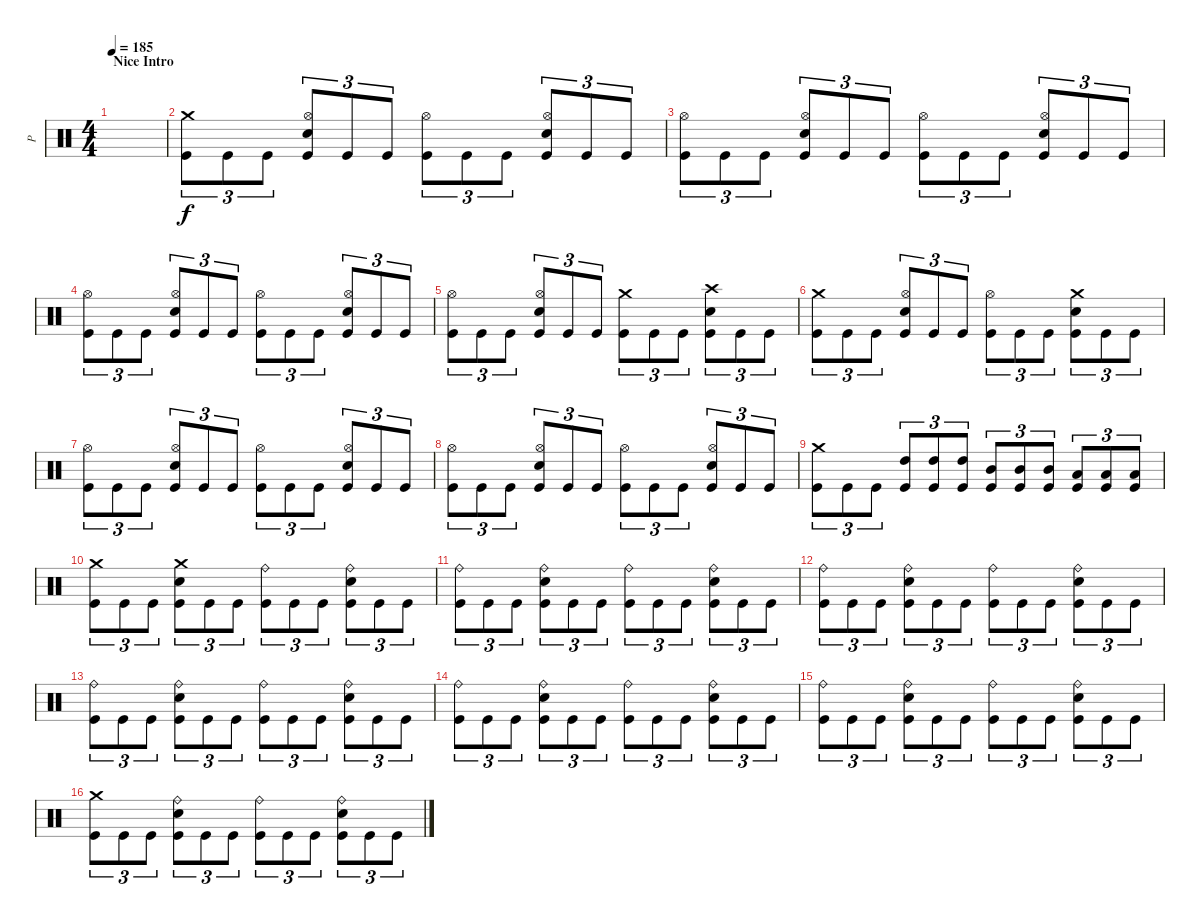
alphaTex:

\track ("P" "P") {instrument percussion}
\staff {score}
\articulation defaults
\ts (4 4)
\section ("" "Nice Intro")
\tempo 185
\clef neutral
\ks c
|
("Crash medium (hit)" "Kick (hit)").8{tu (3 2)} "Kick (hit)".8{tu (3 2)} "Kick (hit)".8{tu (3 2)} ("Hi-Hat (open)" "Electric Snare (hit)" "Kick (hit)").8{tu (3 2)} "Kick (hit)".8{tu (3 2)} "Kick (hit)".8{tu (3 2)} ("Hi-Hat (open)" "Kick (hit)").8{tu (3 2)} "Kick (hit)".8{tu (3 2)} "Kick (hit)".8{tu (3 2)} ("Hi-Hat (open)" "Electric Snare (hit)" "Kick (hit)").8{tu (3 2)} "Kick (hit)".8{tu (3 2)} "Kick (hit)".8{tu (3 2)} |
("Hi-Hat (open)" "Kick (hit)").8{tu (3 2)} "Kick (hit)".8{tu (3 2)} "Kick (hit)".8{tu (3 2)} ("Hi-Hat (open)" "Electric Snare (hit)" "Kick (hit)").8{tu (3 2)} "Kick (hit)".8{tu (3 2)} "Kick (hit)".8{tu (3 2)} ("Hi-Hat (open)" "Kick (hit)").8{tu (3 2)} "Kick (hit)".8{tu (3 2)} "Kick (hit)".8{tu (3 2)} ("Hi-Hat (open)" "Electric Snare (hit)" "Kick (hit)").8{tu (3 2)} "Kick (hit)".8{tu (3 2)} "Kick (hit)".8{tu (3 2)} |
("Hi-Hat (open)" "Kick (hit)").8{tu (3 2)} "Kick (hit)".8{tu (3 2)} "Kick (hit)".8{tu (3 2)} ("Hi-Hat (open)" "Electric Snare (hit)" "Kick (hit)").8{tu (3 2)} "Kick (hit)".8{tu (3 2)} "Kick (hit)".8{tu (3 2)} ("Hi-Hat (open)" "Kick (hit)").8{tu (3 2)} "Kick (hit)".8{tu (3 2)} "Kick (hit)".8{tu (3 2)} ("Hi-Hat (open)" "Electric Snare (hit)" "Kick (hit)").8{tu (3 2)} "Kick (hit)".8{tu (3 2)} "Kick (hit)".8{tu (3 2)} |
("Hi-Hat (open)" "Kick (hit)").8{tu (3 2)} "Kick (hit)".8{tu (3 2)} "Kick (hit)".8{tu (3 2)} ("Hi-Hat (open)" "Electric Snare (hit)" "Kick (hit)").8{tu (3 2)} "Kick (hit)".8{tu (3 2)} "Kick (hit)".8{tu (3 2)} ("Crash medium (hit)" "Kick (hit)").8{tu (3 2)} "Kick (hit)".8{tu (3 2)} "Kick (hit)".8{tu (3 2)} ("Crash high (hit)" "Electric Snare (hit)" "Kick (hit)").8{tu (3 2)} "Kick (hit)".8{tu (3 2)} "Kick (hit)".8{tu (3 2)} |
("Crash medium (hit)" "Kick (hit)").8{tu (3 2)} "Kick (hit)".8{tu (3 2)} "Kick (hit)".8{tu (3 2)} ("Hi-Hat (open)" "Electric Snare (hit)" "Kick (hit)").8{tu (3 2)} "Kick (hit)".8{tu (3 2)} "Kick (hit)".8{tu (3 2)} ("Hi-Hat (open)" "Kick (hit)").8{tu (3 2)} "Kick (hit)".8{tu (3 2)} "Kick (hit)".8{tu (3 2)} ("Crash medium (hit)" "Electric Snare (hit)" "Kick (hit)").8{tu (3 2)} "Kick (hit)".8{tu (3 2)} "Kick (hit)".8{tu (3 2)} |
("Hi-Hat (open)" "Kick (hit)").8{tu (3 2)} "Kick (hit)".8{tu (3 2)} "Kick (hit)".8{tu (3 2)} ("Hi-Hat (open)" "Electric Snare (hit)" "Kick (hit)").8{tu (3 2)} "Kick (hit)".8{tu (3 2)} "Kick (hit)".8{tu (3 2)} ("Hi-Hat (open)" "Kick (hit)").8{tu (3 2)} "Kick (hit)".8{tu (3 2)} "Kick (hit)".8{tu (3 2)} ("Hi-Hat (open)" "Electric Snare (hit)" "Kick (hit)").8{tu (3 2)} "Kick (hit)".8{tu (3 2)} "Kick (hit)".8{tu (3 2)} |
("Hi-Hat (open)" "Kick (hit)").8{tu (3 2)} "Kick (hit)".8{tu (3 2)} "Kick (hit)".8{tu (3 2)} ("Hi-Hat (open)" "Electric Snare (hit)" "Kick (hit)").8{tu (3 2)} "Kick (hit)".8{tu (3 2)} "Kick (hit)".8{tu (3 2)} ("Hi-Hat (open)" "Kick (hit)").8{tu (3 2)} "Kick (hit)".8{tu (3 2)} "Kick (hit)".8{tu (3 2)} ("Hi-Hat (open)" "Electric Snare (hit)" "Kick (hit)").8{tu (3 2)} "Kick (hit)".8{tu (3 2)} "Kick (hit)".8{tu (3 2)} |
("Crash medium (hit)" "Kick (hit)").8{tu (3 2)} "Kick (hit)".8{tu (3 2)} "Kick (hit)".8{tu (3 2)} ("High Tom (hit)" "Kick (hit)").8{tu (3 2)} ("High Tom (hit)" "Kick (hit)").8{tu (3 2)} ("High Tom (hit)" "Kick (hit)").8{tu (3 2)} ("Mid Tom (hit)" "Kick (hit)").8{tu (3 2)} ("Mid Tom (hit)" "Kick (hit)").8{tu (3 2)} ("Mid Tom (hit)" "Kick (hit)").8{tu (3 2)} ("Low Tom (hit)" "Kick (hit)").8{tu (3 2)} ("Low Tom (hit)" "Kick (hit)").8{tu (3 2)} ("Low Tom (hit)" "Kick (hit)").8{tu (3 2)} |
("Crash medium (hit)" "Kick (hit)").8{tu (3 2)} "Kick (hit)".8{tu (3 2)} "Kick (hit)".8{tu (3 2)} ("Crash medium (hit)" "Electric Snare (hit)" "Kick (hit)").8{tu (3 2)} "Kick (hit)".8{tu (3 2)} "Kick (hit)".8{tu (3 2)} ("Ride (bell)" "Kick (hit)").8{tu (3 2)} "Kick (hit)".8{tu (3 2)} "Kick (hit)".8{tu (3 2)} ("Ride (bell)" "Electric Snare (hit)" "Kick (hit)").8{tu (3 2)} "Kick (hit)".8{tu (3 2)} "Kick (hit)".8{tu (3 2)} |
("Ride (bell)" "Kick (hit)").8{tu (3 2)} "Kick (hit)".8{tu (3 2)} "Kick (hit)".8{tu (3 2)} ("Ride (bell)" "Electric Snare (hit)" "Kick (hit)").8{tu (3 2)} "Kick (hit)".8{tu (3 2)} "Kick (hit)".8{tu (3 2)} ("Ride (bell)" "Kick (hit)").8{tu (3 2)} "Kick (hit)".8{tu (3 2)} "Kick (hit)".8{tu (3 2)} ("Ride (bell)" "Electric Snare (hit)" "Kick (hit)").8{tu (3 2)} "Kick (hit)".8{tu (3 2)} "Kick (hit)".8{tu (3 2)} |
("Ride (bell)" "Kick (hit)").8{tu (3 2)} "Kick (hit)".8{tu (3 2)} "Kick (hit)".8{tu (3 2)} ("Ride (bell)" "Electric Snare (hit)" "Kick (hit)").8{tu (3 2)} "Kick (hit)".8{tu (3 2)} "Kick (hit)".8{tu (3 2)} ("Ride (bell)" "Kick (hit)").8{tu (3 2)} "Kick (hit)".8{tu (3 2)} "Kick (hit)".8{tu (3 2)} ("Ride (bell)" "Electric Snare (hit)" "Kick (hit)").8{tu (3 2)} "Kick (hit)".8{tu (3 2)} "Kick (hit)".8{tu (3 2)} |
("Ride (bell)" "Kick (hit)").8{tu (3 2)} "Kick (hit)".8{tu (3 2)} "Kick (hit)".8{tu (3 2)} ("Ride (bell)" "Electric Snare (hit)" "Kick (hit)").8{tu (3 2)} "Kick (hit)".8{tu (3 2)} "Kick (hit)".8{tu (3 2)} ("Ride (bell)" "Kick (hit)").8{tu (3 2)} "Kick (hit)".8{tu (3 2)} "Kick (hit)".8{tu (3 2)} ("Ride (bell)" "Electric Snare (hit)" "Kick (hit)").8{tu (3 2)} "Kick (hit)".8{tu (3 2)} "Kick (hit)".8{tu (3 2)} |
("Ride (bell)" "Kick (hit)").8{tu (3 2)} "Kick (hit)".8{tu (3 2)} "Kick (hit)".8{tu (3 2)} ("Ride (bell)" "Electric Snare (hit)" "Kick (hit)").8{tu (3 2)} "Kick (hit)".8{tu (3 2)} "Kick (hit)".8{tu (3 2)} ("Ride (bell)" "Kick (hit)").8{tu (3 2)} "Kick (hit)".8{tu (3 2)} "Kick (hit)".8{tu (3 2)} ("Ride (bell)" "Electric Snare (hit)" "Kick (hit)").8{tu (3 2)} "Kick (hit)".8{tu (3 2)} "Kick (hit)".8{tu (3 2)} |
("Ride (bell)" "Kick (hit)").8{tu (3 2)} "Kick (hit)".8{tu (3 2)} "Kick (hit)".8{tu (3 2)} ("Ride (bell)" "Electric Snare (hit)" "Kick (hit)").8{tu (3 2)} "Kick (hit)".8{tu (3 2)} "Kick (hit)".8{tu (3 2)} ("Ride (bell)" "Kick (hit)").8{tu (3 2)} "Kick (hit)".8{tu (3 2)} "Kick (hit)".8{tu (3 2)} ("Ride (bell)" "Electric Snare (hit)" "Kick (hit)").8{tu (3 2)} "Kick (hit)".8{tu (3 2)} "Kick (hit)".8{tu (3 2)} |
("Crash medium (hit)" "Kick (hit)").8{tu (3 2)} "Kick (hit)".8{tu (3 2)} "Kick (hit)".8{tu (3 2)} ("Ride (bell)" "Electric Snare (hit)" "Kick (hit)").8{tu (3 2)} "Kick (hit)".8{tu (3 2)} "Kick (hit)".8{tu (3 2)} ("Ride (bell)" "Kick (hit)").8{tu (3 2)} "Kick (hit)".8{tu (3 2)} "Kick (hit)".8{tu (3 2)} ("Ride (bell)" "Electric Snare (hit)" "Kick (hit)").8{tu (3 2)} "Kick (hit)".8{tu (3 2)} "Kick (hit)".8{tu (3 2)}
